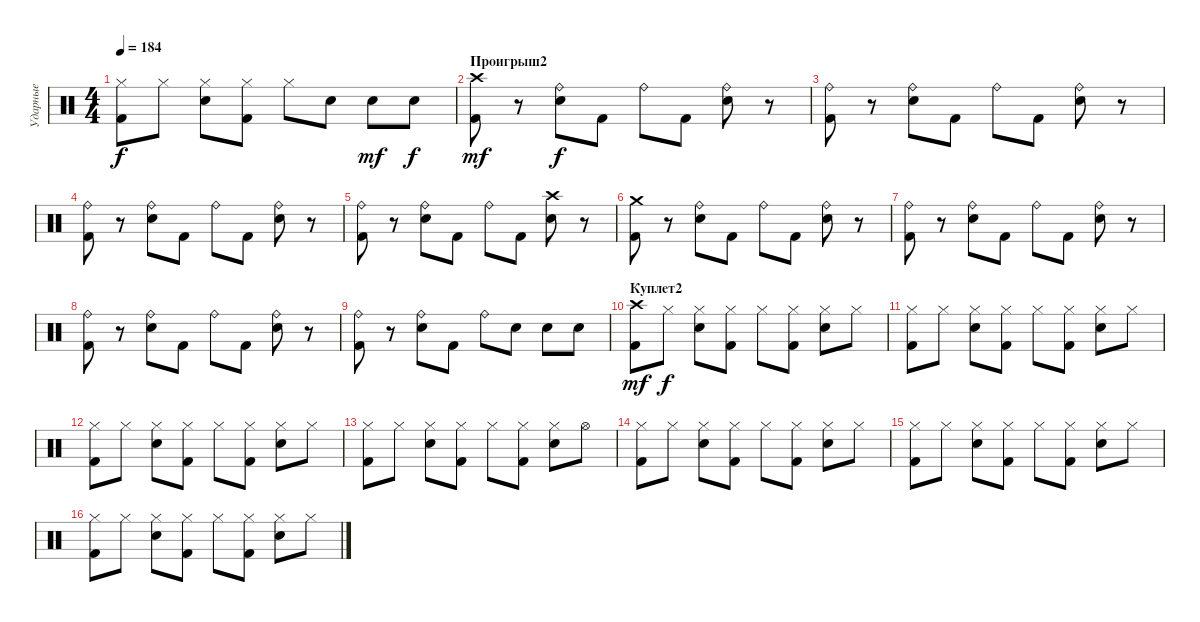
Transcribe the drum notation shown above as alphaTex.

\track ("Ударные" "Ударные") {instrument percussion}
\staff {score}
\articulation defaults
\ts (4 4)
\tempo 184
\clef neutral
\ks c
("Hi-Hat (closed)" "Kick (hit) 2").8{dy f} "Hi-Hat (closed)".8 ("Hi-Hat (closed)" "Snare (hit) 2").8 ("Hi-Hat (closed)" "Kick (hit) 2").8 "Hi-Hat (closed)".8 "Snare (hit) 2".8 "Snare (hit) 2".8{dy mf} "Snare (hit) 2".8{dy f} |
\section ("" "Проигрыш2")
("Crash high (hit)" "Kick (hit) 2").8{dy mf} r.8 ("Ride (bell)" "Snare (hit) 2").8{dy f} "Kick (hit) 2".8 "Ride (bell)".8 "Kick (hit) 2".8 ("Ride (bell)" "Snare (hit) 2").8 r.8 |
("Ride (bell)" "Kick (hit) 2").8 r.8 ("Ride (bell)" "Snare (hit) 2").8 "Kick (hit) 2".8 "Ride (bell)".8 "Kick (hit) 2".8 ("Ride (bell)" "Snare (hit) 2").8 r.8 |
("Ride (bell)" "Kick (hit) 2").8 r.8 ("Ride (bell)" "Snare (hit) 2").8 "Kick (hit) 2".8 "Ride (bell)".8 "Kick (hit) 2".8 ("Ride (bell)" "Snare (hit) 2").8 r.8 |
("Ride (bell)" "Kick (hit) 2").8 r.8 ("Ride (bell)" "Snare (hit) 2").8 "Kick (hit) 2".8 "Ride (bell)".8 "Kick (hit) 2".8 ("Crash high (hit)" "Snare (hit) 2").8 r.8 |
("Crash medium (hit)" "Kick (hit) 2").8 r.8 ("Ride (bell)" "Snare (hit) 2").8 "Kick (hit) 2".8 "Ride (bell)".8 "Kick (hit) 2".8 ("Ride (bell)" "Snare (hit) 2").8 r.8 |
("Ride (bell)" "Kick (hit) 2").8 r.8 ("Ride (bell)" "Snare (hit) 2").8 "Kick (hit) 2".8 "Ride (bell)".8 "Kick (hit) 2".8 ("Ride (bell)" "Snare (hit) 2").8 r.8 |
("Ride (bell)" "Kick (hit) 2").8 r.8 ("Ride (bell)" "Snare (hit) 2").8 "Kick (hit) 2".8 "Ride (bell)".8 "Kick (hit) 2".8 ("Ride (bell)" "Snare (hit) 2").8 r.8 |
("Ride (bell)" "Kick (hit) 2").8 r.8 ("Ride (bell)" "Snare (hit) 2").8 "Kick (hit) 2".8 "Ride (bell)".8 "Snare (hit) 2".8 "Snare (hit) 2".8 "Snare (hit) 2".8 |
\section ("" "Куплет2")
("Crash high (hit)" "Kick (hit) 2").8{dy mf} "Hi-Hat (closed)".8{dy f} ("Hi-Hat (closed)" "Snare (hit) 2").8 ("Hi-Hat (closed)" "Kick (hit) 2").8 "Hi-Hat (closed)".8 ("Hi-Hat (closed)" "Kick (hit) 2").8 ("Hi-Hat (closed)" "Snare (hit) 2").8 "Hi-Hat (closed)".8 |
("Hi-Hat (closed)" "Kick (hit) 2").8 "Hi-Hat (closed)".8 ("Hi-Hat (closed)" "Snare (hit) 2").8 ("Hi-Hat (closed)" "Kick (hit) 2").8 "Hi-Hat (closed)".8 ("Hi-Hat (closed)" "Kick (hit) 2").8 ("Hi-Hat (closed)" "Snare (hit) 2").8 "Hi-Hat (closed)".8 |
("Hi-Hat (closed)" "Kick (hit) 2").8 "Hi-Hat (closed)".8 ("Hi-Hat (closed)" "Snare (hit) 2").8 ("Hi-Hat (closed)" "Kick (hit) 2").8 "Hi-Hat (closed)".8 ("Hi-Hat (closed)" "Kick (hit) 2").8 ("Hi-Hat (closed)" "Snare (hit) 2").8 "Hi-Hat (closed)".8 |
("Hi-Hat (closed)" "Kick (hit) 2").8 "Hi-Hat (closed)".8 ("Hi-Hat (closed)" "Snare (hit) 2").8 ("Hi-Hat (closed)" "Kick (hit) 2").8 "Hi-Hat (closed)".8 ("Hi-Hat (closed)" "Kick (hit) 2").8 ("Hi-Hat (closed)" "Snare (hit) 2").8 "Hi-Hat (open)".8 |
("Hi-Hat (closed)" "Kick (hit) 2").8 "Hi-Hat (closed)".8 ("Hi-Hat (closed)" "Snare (hit) 2").8 ("Hi-Hat (closed)" "Kick (hit) 2").8 "Hi-Hat (closed)".8 ("Hi-Hat (closed)" "Kick (hit) 2").8 ("Hi-Hat (closed)" "Snare (hit) 2").8 "Hi-Hat (closed)".8 |
("Hi-Hat (closed)" "Kick (hit) 2").8 "Hi-Hat (closed)".8 ("Hi-Hat (closed)" "Snare (hit) 2").8 ("Hi-Hat (closed)" "Kick (hit) 2").8 "Hi-Hat (closed)".8 ("Hi-Hat (closed)" "Kick (hit) 2").8 ("Hi-Hat (closed)" "Snare (hit) 2").8 "Hi-Hat (closed)".8 |
("Hi-Hat (closed)" "Kick (hit) 2").8 "Hi-Hat (closed)".8 ("Hi-Hat (closed)" "Snare (hit) 2").8 ("Hi-Hat (closed)" "Kick (hit) 2").8 "Hi-Hat (closed)".8 ("Hi-Hat (closed)" "Kick (hit) 2").8 ("Hi-Hat (closed)" "Snare (hit) 2").8 "Hi-Hat (closed)".8
